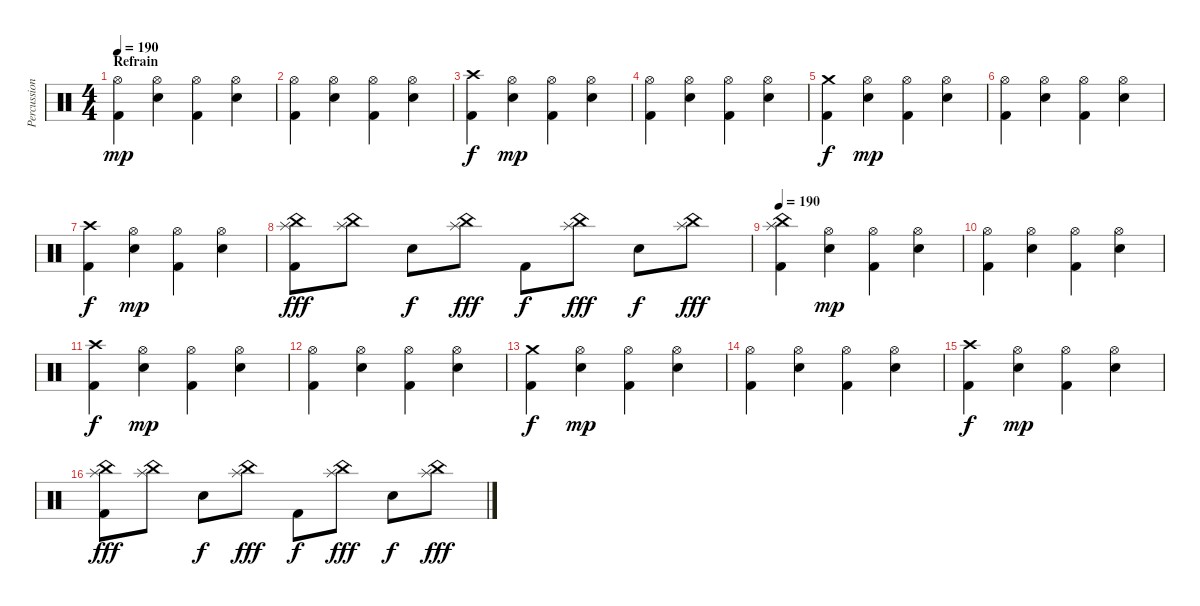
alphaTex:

\track ("Percussion" "Percussion") {instrument percussion}
\staff {score}
\articulation defaults
\ts (4 4)
\section ("" "Refrain")
\tempo 190
\clef neutral
\ks c
("Hi-Hat (open)" "Kick (hit) 2").4{dy mp} ("Hi-Hat (open)" "Electric Snare (hit)").4 ("Hi-Hat (open)" "Kick (hit) 2").4 ("Hi-Hat (open)" "Electric Snare (hit)").4 |
("Hi-Hat (open)" "Kick (hit) 2").4 ("Hi-Hat (open)" "Electric Snare (hit)").4 ("Hi-Hat (open)" "Kick (hit) 2").4 ("Hi-Hat (open)" "Electric Snare (hit)").4 |
("Crash high (hit)" "Kick (hit) 2").4{dy f} ("Hi-Hat (open)" "Electric Snare (hit)").4{dy mp} ("Hi-Hat (open)" "Kick (hit) 2").4 ("Hi-Hat (open)" "Electric Snare (hit)").4 |
("Hi-Hat (open)" "Kick (hit) 2").4 ("Hi-Hat (open)" "Electric Snare (hit)").4 ("Hi-Hat (open)" "Kick (hit) 2").4 ("Hi-Hat (open)" "Electric Snare (hit)").4 |
("Crash medium (hit)" "Kick (hit) 2").4{dy f} ("Hi-Hat (open)" "Electric Snare (hit)").4{dy mp} ("Hi-Hat (open)" "Kick (hit) 2").4 ("Hi-Hat (open)" "Electric Snare (hit)").4 |
("Hi-Hat (open)" "Kick (hit) 2").4 ("Hi-Hat (open)" "Electric Snare (hit)").4 ("Hi-Hat (open)" "Kick (hit) 2").4 ("Hi-Hat (open)" "Electric Snare (hit)").4 |
("Crash high (hit)" "Kick (hit) 2").4{dy f} ("Hi-Hat (open)" "Electric Snare (hit)").4{dy mp} ("Hi-Hat (open)" "Kick (hit) 2").4 ("Hi-Hat (open)" "Electric Snare (hit)").4 |
("China (hit)" "Splash (hit)" "Kick (hit) 2").8{dy fff} ("China (hit)" "Splash (hit)").8 "Electric Snare (hit)".8{dy f} ("China (hit)" "Splash (hit)").8{dy fff} "Kick (hit) 2".8{dy f} ("China (hit)" "Splash (hit)").8{dy fff} "Electric Snare (hit)".8{dy f} ("China (hit)" "Splash (hit)").8{dy fff} |
\tempo 190
("China (hit)" "Splash (hit)" "Kick (hit) 2").4 ("Hi-Hat (open)" "Electric Snare (hit)").4{dy mp} ("Hi-Hat (open)" "Kick (hit) 2").4 ("Hi-Hat (open)" "Electric Snare (hit)").4 |
("Hi-Hat (open)" "Kick (hit) 2").4 ("Hi-Hat (open)" "Electric Snare (hit)").4 ("Hi-Hat (open)" "Kick (hit) 2").4 ("Hi-Hat (open)" "Electric Snare (hit)").4 |
("Crash high (hit)" "Kick (hit) 2").4{dy f} ("Hi-Hat (open)" "Electric Snare (hit)").4{dy mp} ("Hi-Hat (open)" "Kick (hit) 2").4 ("Hi-Hat (open)" "Electric Snare (hit)").4 |
("Hi-Hat (open)" "Kick (hit) 2").4 ("Hi-Hat (open)" "Electric Snare (hit)").4 ("Hi-Hat (open)" "Kick (hit) 2").4 ("Hi-Hat (open)" "Electric Snare (hit)").4 |
("Crash medium (hit)" "Kick (hit) 2").4{dy f} ("Hi-Hat (open)" "Electric Snare (hit)").4{dy mp} ("Hi-Hat (open)" "Kick (hit) 2").4 ("Hi-Hat (open)" "Electric Snare (hit)").4 |
("Hi-Hat (open)" "Kick (hit) 2").4 ("Hi-Hat (open)" "Electric Snare (hit)").4 ("Hi-Hat (open)" "Kick (hit) 2").4 ("Hi-Hat (open)" "Electric Snare (hit)").4 |
("Crash high (hit)" "Kick (hit) 2").4{dy f} ("Hi-Hat (open)" "Electric Snare (hit)").4{dy mp} ("Hi-Hat (open)" "Kick (hit) 2").4 ("Hi-Hat (open)" "Electric Snare (hit)").4 |
("China (hit)" "Splash (hit)" "Kick (hit) 2").8{dy fff} ("China (hit)" "Splash (hit)").8 "Electric Snare (hit)".8{dy f} ("China (hit)" "Splash (hit)").8{dy fff} "Kick (hit) 2".8{dy f} ("China (hit)" "Splash (hit)").8{dy fff} "Electric Snare (hit)".8{dy f} ("China (hit)" "Splash (hit)").8{dy fff}
